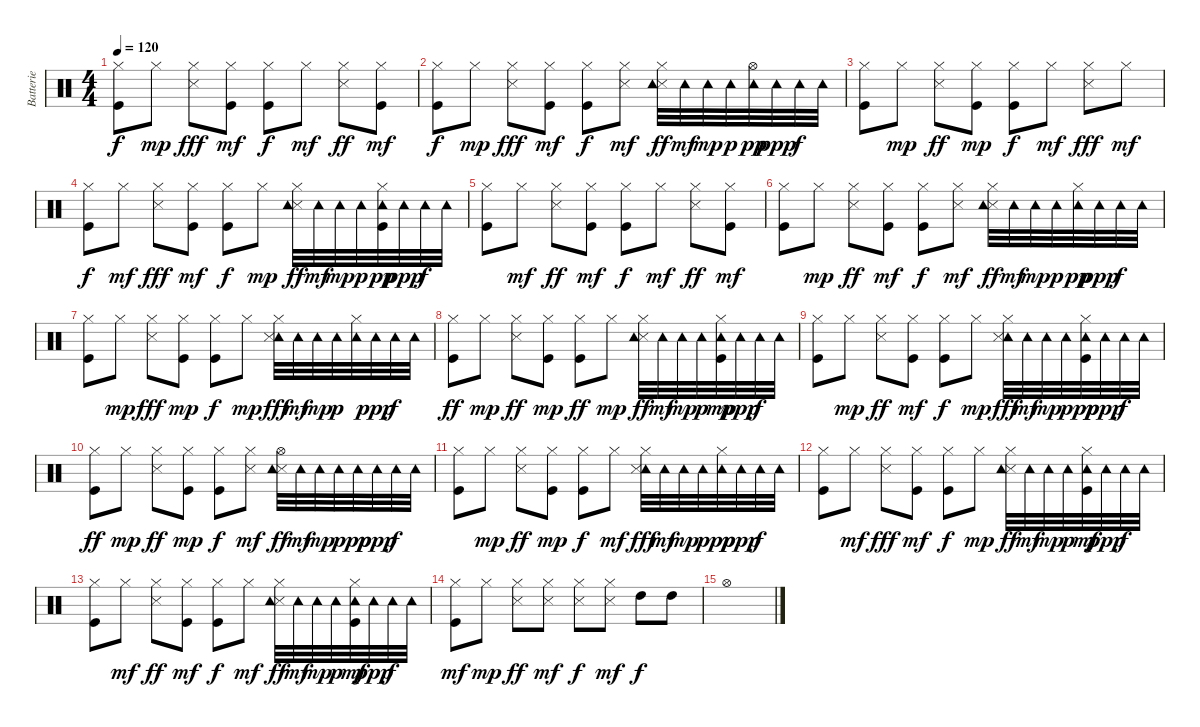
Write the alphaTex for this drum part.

\track ("Batterie" "Batterie") {instrument percussion}
\staff {score}
\articulation defaults
\ts (4 4)
\tempo 120
\clef neutral
\ks c
("Kick (hit)" "Hi-Hat (closed)").8{dy f} "Hi-Hat (closed)".8{dy mp} ("Snare (side stick) 3" "Hi-Hat (closed)").8{dy fff} ("Kick (hit)" "Hi-Hat (closed)").8{dy mf} ("Kick (hit)" "Hi-Hat (closed)").8{dy f} "Hi-Hat (closed)".8{dy mf} ("Snare (side stick) 3" "Hi-Hat (closed)").8{dy ff} ("Kick (hit)" "Hi-Hat (closed)").8{dy mf} |
("Kick (hit)" "Hi-Hat (closed)").8{dy f} "Hi-Hat (closed)".8{dy mp} ("Snare (side stick) 3" "Hi-Hat (closed)").8{dy fff} ("Kick (hit)" "Hi-Hat (closed)").8{dy mf} ("Kick (hit)" "Hi-Hat (closed)").8{dy f} ("Snare (side stick) 3" "Hi-Hat (closed)").8{dy mf} ("Snare (side stick) 3" "Hi-Hat (closed)" "Tambourine (hit)").32{dy ff} "Tambourine (hit)".32{dy mf} "Tambourine (hit)".32{dy mp} "Tambourine (hit)".32{dy p} ("Hi-Hat (open)" "Tambourine (hit)").32{dy pp} "Tambourine (hit)".32{dy ppp} "Tambourine (hit)".32{dy f} "Tambourine (hit)".32 |
("Kick (hit)" "Hi-Hat (closed)").8 "Hi-Hat (closed)".8{dy mp} ("Snare (side stick) 3" "Hi-Hat (closed)").8{dy ff} ("Kick (hit)" "Hi-Hat (closed)").8{dy mp} ("Kick (hit)" "Hi-Hat (closed)").8{dy f} "Hi-Hat (closed)".8{dy mf} ("Snare (side stick) 3" "Hi-Hat (closed)").8{dy fff} "Hi-Hat (closed)".8{dy mf} |
("Kick (hit)" "Hi-Hat (closed)").8{dy f} "Hi-Hat (closed)".8{dy mf} ("Snare (side stick) 3" "Hi-Hat (closed)").8{dy fff} ("Kick (hit)" "Hi-Hat (closed)").8{dy mf} ("Kick (hit)" "Hi-Hat (closed)").8{dy f} "Hi-Hat (closed)".8{dy mp} ("Snare (side stick) 3" "Hi-Hat (closed)" "Tambourine (hit)").32{dy ff} "Tambourine (hit)".32{dy mf} "Tambourine (hit)".32{dy mp} "Tambourine (hit)".32{dy p} ("Kick (hit)" "Hi-Hat (closed)" "Tambourine (hit)").32{dy pp} "Tambourine (hit)".32{dy ppp} "Tambourine (hit)".32{dy f} "Tambourine (hit)".32 |
("Kick (hit)" "Hi-Hat (closed)").8 "Hi-Hat (closed)".8{dy mf} ("Snare (side stick) 3" "Hi-Hat (closed)").8{dy ff} ("Kick (hit)" "Hi-Hat (closed)").8{dy mf} ("Kick (hit)" "Hi-Hat (closed)").8{dy f} "Hi-Hat (closed)".8{dy mf} ("Snare (side stick) 3" "Hi-Hat (closed)").8{dy ff} ("Kick (hit)" "Hi-Hat (closed)").8{dy mf} |
("Kick (hit)" "Hi-Hat (closed)").8 "Hi-Hat (closed)".8{dy mp} ("Snare (side stick) 3" "Hi-Hat (closed)").8{dy ff} ("Kick (hit)" "Hi-Hat (closed)").8{dy mf} ("Kick (hit)" "Hi-Hat (closed)").8{dy f} ("Snare (side stick) 3" "Hi-Hat (closed)").8{dy mf} ("Snare (side stick) 3" "Hi-Hat (closed)" "Tambourine (hit)").32{dy ff} "Tambourine (hit)".32{dy mf} "Tambourine (hit)".32{dy mp} "Tambourine (hit)".32{dy p} ("Hi-Hat (closed)" "Tambourine (hit)").32{dy pp} "Tambourine (hit)".32{dy ppp} "Tambourine (hit)".32{dy f} "Tambourine (hit)".32 |
("Kick (hit)" "Hi-Hat (closed)").8 "Hi-Hat (closed)".8{dy mp} ("Snare (side stick) 3" "Hi-Hat (closed)").8{dy fff} ("Kick (hit)" "Hi-Hat (closed)").8{dy mp} ("Kick (hit)" "Hi-Hat (closed)").8{dy f} "Hi-Hat (closed)".8{dy mp} ("Tambourine (hit)" "Snare (side stick) 3" "Hi-Hat (closed)").32{dy fff} "Tambourine (hit)".32{dy mf} "Tambourine (hit)".32{dy mp} "Tambourine (hit)".32{dy p} ("Tambourine (hit)" "Hi-Hat (closed)").32 "Tambourine (hit)".32{dy ppp} "Tambourine (hit)".32{dy f} "Tambourine (hit)".32 |
("Kick (hit)" "Hi-Hat (closed)").8{dy ff} "Hi-Hat (closed)".8{dy mp} ("Snare (side stick) 3" "Hi-Hat (closed)").8{dy ff} ("Kick (hit)" "Hi-Hat (closed)").8{dy mp} ("Kick (hit)" "Hi-Hat (closed)").8{dy ff} "Hi-Hat (closed)".8{dy mp} ("Snare (side stick) 3" "Hi-Hat (closed)" "Tambourine (hit)").32{dy ff} "Tambourine (hit)".32{dy mf} "Tambourine (hit)".32{dy mp} "Tambourine (hit)".32{dy p} ("Tambourine (hit)" "Kick (hit)" "Hi-Hat (closed)").32{dy mp} "Tambourine (hit)".32{dy ppp} "Tambourine (hit)".32{dy f} "Tambourine (hit)".32 |
("Kick (hit)" "Hi-Hat (closed)").8 "Hi-Hat (closed)".8{dy mp} ("Snare (side stick) 3" "Hi-Hat (closed)").8{dy ff} ("Kick (hit)" "Hi-Hat (closed)").8{dy mf} ("Kick (hit)" "Hi-Hat (closed)").8{dy f} "Hi-Hat (closed)".8{dy mp} ("Tambourine (hit)" "Snare (side stick) 3" "Hi-Hat (closed)").32{dy fff} "Tambourine (hit)".32{dy mf} "Tambourine (hit)".32{dy mp} "Tambourine (hit)".32{dy p} ("Kick (hit)" "Hi-Hat (closed)" "Tambourine (hit)").32{dy pp} "Tambourine (hit)".32{dy ppp} "Tambourine (hit)".32{dy f} "Tambourine (hit)".32 |
("Kick (hit)" "Hi-Hat (closed)").8{dy ff} "Hi-Hat (closed)".8{dy mp} ("Snare (side stick) 3" "Hi-Hat (closed)").8{dy ff} ("Kick (hit)" "Hi-Hat (closed)").8{dy mp} ("Kick (hit)" "Hi-Hat (closed)").8{dy f} ("Snare (side stick) 3" "Hi-Hat (closed)").8{dy mf} ("Snare (side stick) 3" "Hi-Hat (open)" "Tambourine (hit)").32{dy ff} "Tambourine (hit)".32{dy mf} "Tambourine (hit)".32{dy mp} "Tambourine (hit)".32{dy p} "Tambourine (hit)".32{dy pp} "Tambourine (hit)".32{dy ppp} "Tambourine (hit)".32{dy f} "Tambourine (hit)".32 |
("Kick (hit)" "Hi-Hat (closed)").8 "Hi-Hat (closed)".8{dy mp} ("Snare (side stick) 3" "Hi-Hat (closed)").8{dy ff} ("Kick (hit)" "Hi-Hat (closed)").8{dy mp} ("Kick (hit)" "Hi-Hat (closed)").8{dy f} "Hi-Hat (closed)".8{dy mf} ("Tambourine (hit)" "Snare (side stick) 3" "Hi-Hat (closed)").32{dy fff} "Tambourine (hit)".32{dy mf} "Tambourine (hit)".32{dy mp} "Tambourine (hit)".32{dy p} ("Hi-Hat (closed)" "Tambourine (hit)").32{dy pp} "Tambourine (hit)".32{dy ppp} "Tambourine (hit)".32{dy f} "Tambourine (hit)".32 |
("Kick (hit)" "Hi-Hat (closed)").8 "Hi-Hat (closed)".8{dy mf} ("Snare (side stick) 3" "Hi-Hat (closed)").8{dy fff} ("Kick (hit)" "Hi-Hat (closed)").8{dy mf} ("Kick (hit)" "Hi-Hat (closed)").8{dy f} "Hi-Hat (closed)".8{dy mp} ("Snare (side stick) 3" "Tambourine (hit)" "Hi-Hat (closed)").32{dy ff} "Tambourine (hit)".32{dy mf} "Tambourine (hit)".32{dy mp} "Tambourine (hit)".32{dy p} ("Tambourine (hit)" "Kick (hit)" "Hi-Hat (closed)").32{dy mf} "Tambourine (hit)".32{dy ppp} "Tambourine (hit)".32{dy f} "Tambourine (hit)".32 |
("Kick (hit)" "Hi-Hat (closed)").8 "Hi-Hat (closed)".8{dy mf} ("Snare (side stick) 3" "Hi-Hat (closed)").8{dy ff} ("Kick (hit)" "Hi-Hat (closed)").8{dy mf} ("Kick (hit)" "Hi-Hat (closed)").8{dy f} "Hi-Hat (closed)".8{dy mf} ("Snare (side stick) 3" "Tambourine (hit)" "Hi-Hat (closed)").32{dy ff} "Tambourine (hit)".32{dy mf} "Tambourine (hit)".32{dy mp} "Tambourine (hit)".32{dy p} ("Kick (hit)" "Tambourine (hit)" "Hi-Hat (closed)").32{dy mf} "Tambourine (hit)".32{dy ppp} "Tambourine (hit)".32{dy f} "Tambourine (hit)".32 |
("Kick (hit)" "Hi-Hat (closed)").8{dy mf} "Hi-Hat (closed)".8{dy mp} ("Snare (side stick) 3" "Hi-Hat (closed)").8{dy ff} ("Snare (side stick) 3" "Hi-Hat (closed)").8{dy mf} ("Snare (side stick) 3" "Hi-Hat (closed)").8{dy f} ("Snare (side stick) 3" "Hi-Hat (closed)").8{dy mf} "High Tom (hit)".8{dy f} "High Tom (hit)".8 |
"Hi-Hat (open)".1
